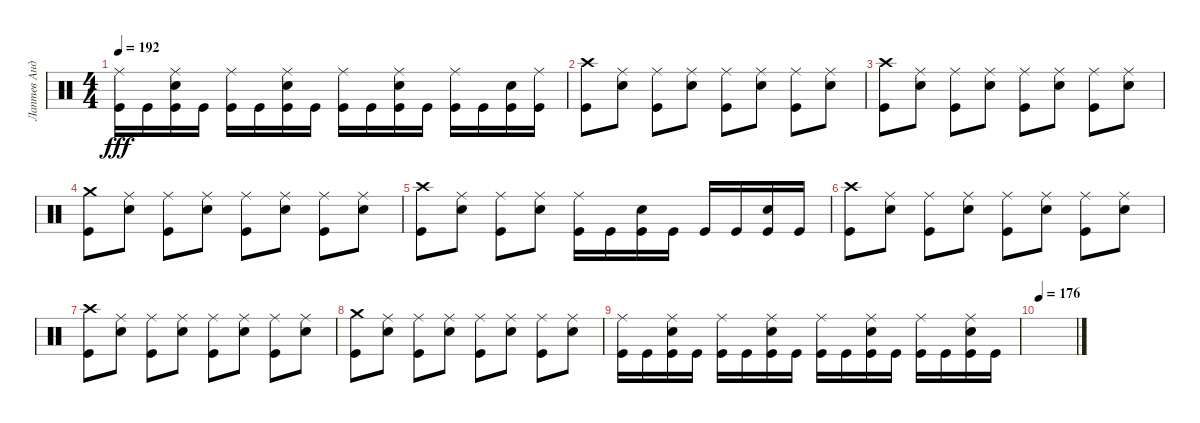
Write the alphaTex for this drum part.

\track ("Лаптев Андрей" "Лаптев Анд") {instrument percussion}
\staff {score}
\articulation defaults
\ts (4 4)
\tempo 192
\clef neutral
\ks c
("Kick (hit)" "Ride (middle)").16{dy fff} "Kick (hit)".16 ("Ride (middle)" "Kick (hit)" "Electric Snare (hit)").16 "Kick (hit)".16 ("Ride (middle)" "Kick (hit)").16 "Kick (hit)".16 ("Kick (hit)" "Ride (middle)" "Electric Snare (hit)").16 "Kick (hit)".16 ("Kick (hit)" "Ride (middle)").16 "Kick (hit)".16 ("Ride (middle)" "Electric Snare (hit)" "Kick (hit)").16 "Kick (hit)".16 ("Kick (hit)" "Ride (middle)").16 "Kick (hit)".16 ("Electric Snare (hit)" "Kick (hit)").16 ("Kick (hit)" "Ride (middle)").16 |
("Kick (hit)" "Crash high (hit)").8 ("Ride (middle)" "Electric Snare (hit)").8 ("Ride (middle)" "Kick (hit)").8 ("Ride (middle)" "Electric Snare (hit)").8 ("Kick (hit)" "Ride (middle)").8 ("Electric Snare (hit)" "Ride (middle)").8 ("Ride (middle)" "Kick (hit)").8 ("Ride (middle)" "Electric Snare (hit)").8 |
("Crash high (hit)" "Kick (hit)").8 ("Ride (middle)" "Electric Snare (hit)").8 ("Kick (hit)" "Ride (middle)").8 ("Electric Snare (hit)" "Ride (middle)").8 ("Kick (hit)" "Ride (middle)").8 ("Electric Snare (hit)" "Ride (middle)").8 ("Kick (hit)" "Ride (middle)").8 ("Ride (middle)" "Electric Snare (hit)").8 |
("Kick (hit)" "Crash medium (hit)").8 ("Electric Snare (hit)" "Ride (middle)").8 ("Ride (middle)" "Kick (hit)").8 ("Ride (middle)" "Electric Snare (hit)").8 ("Kick (hit)" "Ride (middle)").8 ("Ride (middle)" "Electric Snare (hit)").8 ("Ride (middle)" "Kick (hit)").8 ("Ride (middle)" "Electric Snare (hit)").8 |
("Kick (hit)" "Crash high (hit)").8 ("Ride (middle)" "Electric Snare (hit)").8 ("Kick (hit)" "Ride (middle)").8 ("Electric Snare (hit)" "Ride (middle)").8 ("Kick (hit)" "Ride (middle)").16 "Kick (hit)".16 ("Kick (hit)" "Electric Snare (hit)").16 "Kick (hit)".16 "Kick (hit)".16 "Kick (hit)".16 ("Electric Snare (hit)" "Kick (hit)").16 "Kick (hit)".16 |
("Kick (hit)" "Crash high (hit)").8 ("Electric Snare (hit)" "Ride (middle)").8 ("Ride (middle)" "Kick (hit)").8 ("Ride (middle)" "Electric Snare (hit)").8 ("Ride (middle)" "Kick (hit)").8 ("Ride (middle)" "Electric Snare (hit)").8 ("Ride (middle)" "Kick (hit)").8 ("Ride (middle)" "Electric Snare (hit)").8 |
("Kick (hit)" "Crash high (hit)").8 ("Electric Snare (hit)" "Ride (middle)").8 ("Kick (hit)" "Ride (middle)").8 ("Electric Snare (hit)" "Ride (middle)").8 ("Ride (middle)" "Kick (hit)").8 ("Electric Snare (hit)" "Ride (middle)").8 ("Ride (middle)" "Kick (hit)").8 ("Ride (middle)" "Electric Snare (hit)").8 |
("Crash medium (hit)" "Kick (hit)").8 ("Electric Snare (hit)" "Ride (middle)").8 ("Ride (middle)" "Kick (hit)").8 ("Electric Snare (hit)" "Ride (middle)").8 ("Ride (middle)" "Kick (hit)").8 ("Electric Snare (hit)" "Ride (middle)").8 ("Ride (middle)" "Kick (hit)").8 ("Ride (middle)" "Electric Snare (hit)").8 |
("Ride (middle)" "Kick (hit)").16 "Kick (hit)".16 ("Kick (hit)" "Ride (middle)" "Electric Snare (hit)").16 "Kick (hit)".16 ("Ride (middle)" "Kick (hit)").16 "Kick (hit)".16 ("Kick (hit)" "Ride (middle)" "Electric Snare (hit)").16 "Kick (hit)".16 ("Kick (hit)" "Ride (middle)").16 "Kick (hit)".16 ("Ride (middle)" "Electric Snare (hit)" "Kick (hit)").16 "Kick (hit)".16 ("Kick (hit)" "Ride (middle)").16 "Kick (hit)".16 ("Ride (middle)" "Electric Snare (hit)" "Kick (hit)").16 "Kick (hit)".16 |
\tempo 176
